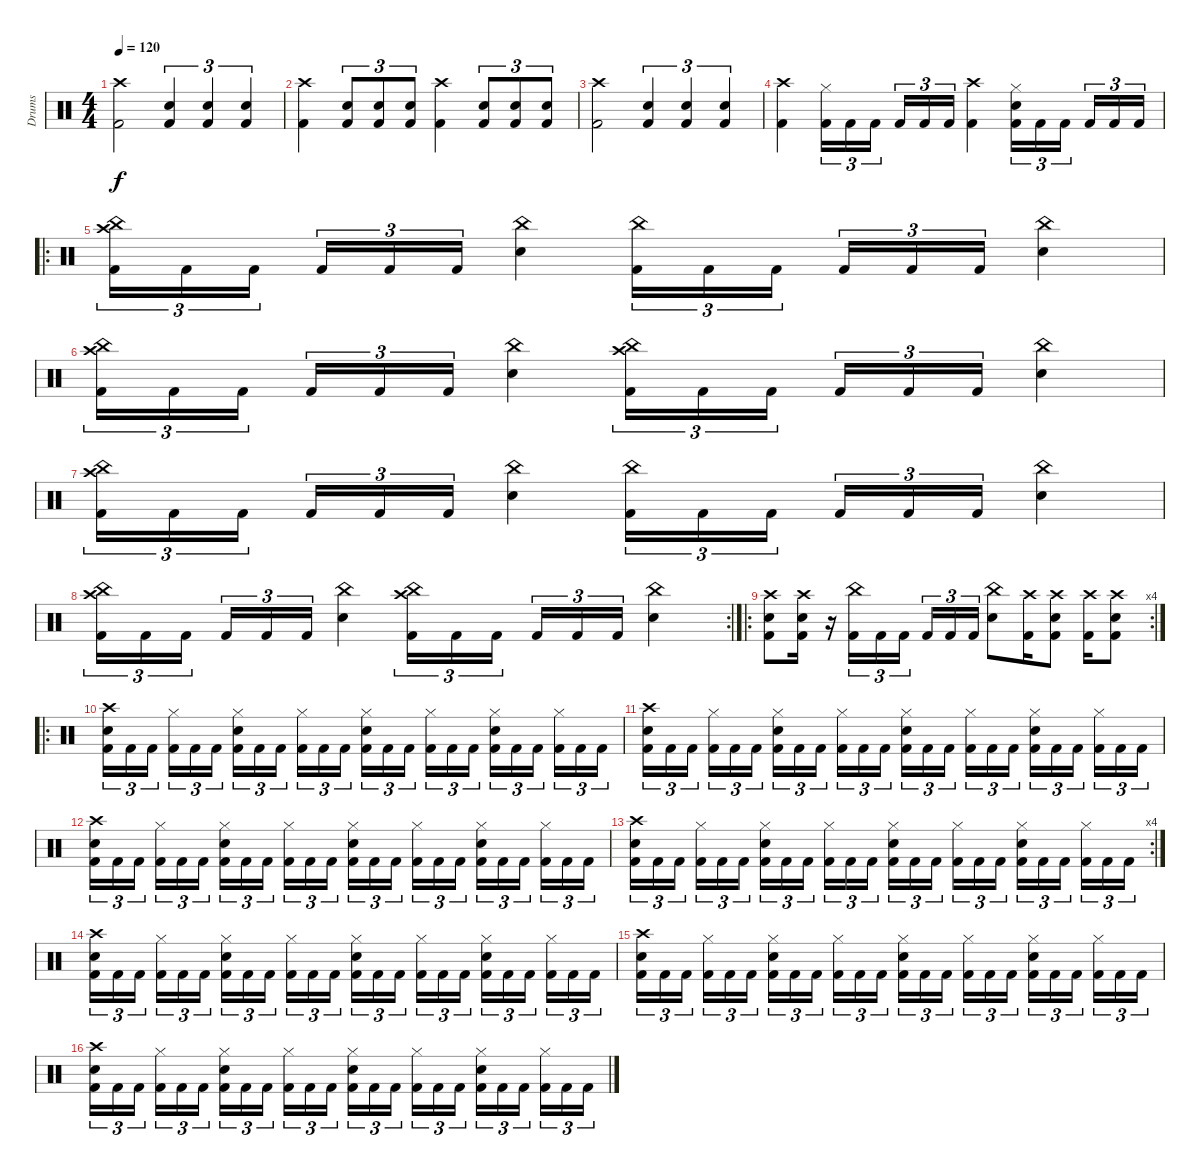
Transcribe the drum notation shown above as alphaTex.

\track ("Drums" "Drums") {instrument percussion}
\staff {score}
\articulation defaults
\ts (4 4)
\tempo 120
\clef neutral
\ks c
("Crash high (hit)" "Kick (hit) 2").2{dy f} ("Snare (hit) 2" "Kick (hit) 2").4{tu (3 2)} ("Snare (hit) 2" "Kick (hit) 2").4{tu (3 2)} ("Snare (hit) 2" "Kick (hit) 2").4{tu (3 2)} |
("Crash high (hit)" "Kick (hit) 2").4 ("Snare (hit) 2" "Kick (hit) 2").8{tu (3 2)} ("Snare (hit) 2" "Kick (hit) 2").8{tu (3 2)} ("Snare (hit) 2" "Kick (hit) 2").8{tu (3 2)} ("Crash high (hit)" "Kick (hit) 2").4 ("Snare (hit) 2" "Kick (hit) 2").8{tu (3 2)} ("Snare (hit) 2" "Kick (hit) 2").8{tu (3 2)} ("Snare (hit) 2" "Kick (hit) 2").8{tu (3 2)} |
("Crash high (hit)" "Kick (hit) 2").2 ("Snare (hit) 2" "Kick (hit) 2").4{tu (3 2)} ("Snare (hit) 2" "Kick (hit) 2").4{tu (3 2)} ("Snare (hit) 2" "Kick (hit) 2").4{tu (3 2)} |
("Crash high (hit)" "Kick (hit) 2").4 ("Hi-Hat (closed)" "Kick (hit) 2").16{tu (3 2)} "Kick (hit) 2".16{tu (3 2)} "Kick (hit) 2".16{tu (3 2)} "Kick (hit) 2".16{tu (3 2)} "Kick (hit) 2".16{tu (3 2)} "Kick (hit) 2".16{tu (3 2)} ("Crash high (hit)" "Kick (hit) 2").4 ("Hi-Hat (closed)" "Snare (hit) 2" "Kick (hit) 2").16{tu (3 2)} "Kick (hit) 2".16{tu (3 2)} "Kick (hit) 2".16{tu (3 2)} "Kick (hit) 2".16{tu (3 2)} "Kick (hit) 2".16{tu (3 2)} "Kick (hit) 2".16{tu (3 2)} |
\ro
("Crash high (hit)" "China (hit)" "Kick (hit) 2").16{tu (3 2)} "Kick (hit) 2".16{tu (3 2)} "Kick (hit) 2".16{tu (3 2)} "Kick (hit) 2".16{tu (3 2)} "Kick (hit) 2".16{tu (3 2)} "Kick (hit) 2".16{tu (3 2)} ("China (hit)" "Snare (hit) 2").4 ("China (hit)" "Kick (hit) 2").16{tu (3 2)} "Kick (hit) 2".16{tu (3 2)} "Kick (hit) 2".16{tu (3 2)} "Kick (hit) 2".16{tu (3 2)} "Kick (hit) 2".16{tu (3 2)} "Kick (hit) 2".16{tu (3 2)} ("China (hit)" "Snare (hit) 2").4 |
("Crash high (hit)" "China (hit)" "Kick (hit) 2").16{tu (3 2)} "Kick (hit) 2".16{tu (3 2)} "Kick (hit) 2".16{tu (3 2)} "Kick (hit) 2".16{tu (3 2)} "Kick (hit) 2".16{tu (3 2)} "Kick (hit) 2".16{tu (3 2)} ("China (hit)" "Snare (hit) 2").4 ("Crash high (hit)" "China (hit)" "Kick (hit) 2").16{tu (3 2)} "Kick (hit) 2".16{tu (3 2)} "Kick (hit) 2".16{tu (3 2)} "Kick (hit) 2".16{tu (3 2)} "Kick (hit) 2".16{tu (3 2)} "Kick (hit) 2".16{tu (3 2)} ("China (hit)" "Snare (hit) 2").4 |
("Crash high (hit)" "China (hit)" "Kick (hit) 2").16{tu (3 2)} "Kick (hit) 2".16{tu (3 2)} "Kick (hit) 2".16{tu (3 2)} "Kick (hit) 2".16{tu (3 2)} "Kick (hit) 2".16{tu (3 2)} "Kick (hit) 2".16{tu (3 2)} ("China (hit)" "Snare (hit) 2").4 ("China (hit)" "Kick (hit) 2").16{tu (3 2)} "Kick (hit) 2".16{tu (3 2)} "Kick (hit) 2".16{tu (3 2)} "Kick (hit) 2".16{tu (3 2)} "Kick (hit) 2".16{tu (3 2)} "Kick (hit) 2".16{tu (3 2)} ("China (hit)" "Snare (hit) 2").4 |
\rc 2
("Crash high (hit)" "China (hit)" "Kick (hit) 2").16{tu (3 2)} "Kick (hit) 2".16{tu (3 2)} "Kick (hit) 2".16{tu (3 2)} "Kick (hit) 2".16{tu (3 2)} "Kick (hit) 2".16{tu (3 2)} "Kick (hit) 2".16{tu (3 2)} ("China (hit)" "Snare (hit) 2").4 ("Crash high (hit)" "China (hit)" "Kick (hit) 2").16{tu (3 2)} "Kick (hit) 2".16{tu (3 2)} "Kick (hit) 2".16{tu (3 2)} "Kick (hit) 2".16{tu (3 2)} "Kick (hit) 2".16{tu (3 2)} "Kick (hit) 2".16{tu (3 2)} ("China (hit)" "Snare (hit) 2").4 |
\ro
\rc 4
("Crash high (hit)" "Snare (hit) 2" "Kick (hit) 2").8 ("Crash high (hit)" "Snare (hit) 2" "Kick (hit) 2").16 r.16 ("China (hit)" "Kick (hit) 2").16{tu (3 2)} "Kick (hit) 2".16{tu (3 2)} "Kick (hit) 2".16{tu (3 2)} "Kick (hit) 2".16{tu (3 2)} "Kick (hit) 2".16{tu (3 2)} "Kick (hit) 2".16{tu (3 2)} ("China (hit)" "Snare (hit) 2").8 ("Crash high (hit)" "Kick (hit) 2").16 ("Crash high (hit)" "Snare (hit) 2" "Kick (hit) 2").8 ("Crash high (hit)" "Kick (hit) 2").16 ("Crash high (hit)" "Snare (hit) 2" "Kick (hit) 2").8 |
\ro
("Crash high (hit)" "Snare (hit) 2" "Kick (hit) 2").16{tu (3 2)} "Kick (hit) 2".16{tu (3 2)} "Kick (hit) 2".16{tu (3 2)} ("Hi-Hat (closed)" "Kick (hit) 2").16{tu (3 2)} "Kick (hit) 2".16{tu (3 2)} "Kick (hit) 2".16{tu (3 2)} ("Hi-Hat (closed)" "Snare (hit) 2" "Kick (hit) 2").16{tu (3 2)} "Kick (hit) 2".16{tu (3 2)} "Kick (hit) 2".16{tu (3 2)} ("Hi-Hat (closed)" "Kick (hit) 2").16{tu (3 2)} "Kick (hit) 2".16{tu (3 2)} "Kick (hit) 2".16{tu (3 2)} ("Hi-Hat (closed)" "Snare (hit) 2" "Kick (hit) 2").16{tu (3 2)} "Kick (hit) 2".16{tu (3 2)} "Kick (hit) 2".16{tu (3 2)} ("Hi-Hat (closed)" "Kick (hit) 2").16{tu (3 2)} "Kick (hit) 2".16{tu (3 2)} "Kick (hit) 2".16{tu (3 2)} ("Hi-Hat (closed)" "Snare (hit) 2" "Kick (hit) 2").16{tu (3 2)} "Kick (hit) 2".16{tu (3 2)} "Kick (hit) 2".16{tu (3 2)} ("Hi-Hat (closed)" "Kick (hit) 2").16{tu (3 2)} "Kick (hit) 2".16{tu (3 2)} "Kick (hit) 2".16{tu (3 2)} |
("Crash high (hit)" "Snare (hit) 2" "Kick (hit) 2").16{tu (3 2)} "Kick (hit) 2".16{tu (3 2)} "Kick (hit) 2".16{tu (3 2)} ("Hi-Hat (closed)" "Kick (hit) 2").16{tu (3 2)} "Kick (hit) 2".16{tu (3 2)} "Kick (hit) 2".16{tu (3 2)} ("Hi-Hat (closed)" "Snare (hit) 2" "Kick (hit) 2").16{tu (3 2)} "Kick (hit) 2".16{tu (3 2)} "Kick (hit) 2".16{tu (3 2)} ("Hi-Hat (closed)" "Kick (hit) 2").16{tu (3 2)} "Kick (hit) 2".16{tu (3 2)} "Kick (hit) 2".16{tu (3 2)} ("Hi-Hat (closed)" "Snare (hit) 2" "Kick (hit) 2").16{tu (3 2)} "Kick (hit) 2".16{tu (3 2)} "Kick (hit) 2".16{tu (3 2)} ("Hi-Hat (closed)" "Kick (hit) 2").16{tu (3 2)} "Kick (hit) 2".16{tu (3 2)} "Kick (hit) 2".16{tu (3 2)} ("Hi-Hat (closed)" "Snare (hit) 2" "Kick (hit) 2").16{tu (3 2)} "Kick (hit) 2".16{tu (3 2)} "Kick (hit) 2".16{tu (3 2)} ("Hi-Hat (closed)" "Kick (hit) 2").16{tu (3 2)} "Kick (hit) 2".16{tu (3 2)} "Kick (hit) 2".16{tu (3 2)} |
("Crash high (hit)" "Snare (hit) 2" "Kick (hit) 2").16{tu (3 2)} "Kick (hit) 2".16{tu (3 2)} "Kick (hit) 2".16{tu (3 2)} ("Hi-Hat (closed)" "Kick (hit) 2").16{tu (3 2)} "Kick (hit) 2".16{tu (3 2)} "Kick (hit) 2".16{tu (3 2)} ("Hi-Hat (closed)" "Snare (hit) 2" "Kick (hit) 2").16{tu (3 2)} "Kick (hit) 2".16{tu (3 2)} "Kick (hit) 2".16{tu (3 2)} ("Hi-Hat (closed)" "Kick (hit) 2").16{tu (3 2)} "Kick (hit) 2".16{tu (3 2)} "Kick (hit) 2".16{tu (3 2)} ("Hi-Hat (closed)" "Snare (hit) 2" "Kick (hit) 2").16{tu (3 2)} "Kick (hit) 2".16{tu (3 2)} "Kick (hit) 2".16{tu (3 2)} ("Hi-Hat (closed)" "Kick (hit) 2").16{tu (3 2)} "Kick (hit) 2".16{tu (3 2)} "Kick (hit) 2".16{tu (3 2)} ("Hi-Hat (closed)" "Snare (hit) 2" "Kick (hit) 2").16{tu (3 2)} "Kick (hit) 2".16{tu (3 2)} "Kick (hit) 2".16{tu (3 2)} ("Hi-Hat (closed)" "Kick (hit) 2").16{tu (3 2)} "Kick (hit) 2".16{tu (3 2)} "Kick (hit) 2".16{tu (3 2)} |
\rc 4
("Crash high (hit)" "Snare (hit) 2" "Kick (hit) 2").16{tu (3 2)} "Kick (hit) 2".16{tu (3 2)} "Kick (hit) 2".16{tu (3 2)} ("Hi-Hat (closed)" "Kick (hit) 2").16{tu (3 2)} "Kick (hit) 2".16{tu (3 2)} "Kick (hit) 2".16{tu (3 2)} ("Hi-Hat (closed)" "Snare (hit) 2" "Kick (hit) 2").16{tu (3 2)} "Kick (hit) 2".16{tu (3 2)} "Kick (hit) 2".16{tu (3 2)} ("Hi-Hat (closed)" "Kick (hit) 2").16{tu (3 2)} "Kick (hit) 2".16{tu (3 2)} "Kick (hit) 2".16{tu (3 2)} ("Hi-Hat (closed)" "Snare (hit) 2" "Kick (hit) 2").16{tu (3 2)} "Kick (hit) 2".16{tu (3 2)} "Kick (hit) 2".16{tu (3 2)} ("Hi-Hat (closed)" "Kick (hit) 2").16{tu (3 2)} "Kick (hit) 2".16{tu (3 2)} "Kick (hit) 2".16{tu (3 2)} ("Hi-Hat (closed)" "Snare (hit) 2" "Kick (hit) 2").16{tu (3 2)} "Kick (hit) 2".16{tu (3 2)} "Kick (hit) 2".16{tu (3 2)} ("Hi-Hat (closed)" "Kick (hit) 2").16{tu (3 2)} "Kick (hit) 2".16{tu (3 2)} "Kick (hit) 2".16{tu (3 2)} |
("Crash high (hit)" "Snare (hit) 2" "Kick (hit) 2").16{tu (3 2)} "Kick (hit) 2".16{tu (3 2)} "Kick (hit) 2".16{tu (3 2)} ("Hi-Hat (closed)" "Kick (hit) 2").16{tu (3 2)} "Kick (hit) 2".16{tu (3 2)} "Kick (hit) 2".16{tu (3 2)} ("Hi-Hat (closed)" "Snare (hit) 2" "Kick (hit) 2").16{tu (3 2)} "Kick (hit) 2".16{tu (3 2)} "Kick (hit) 2".16{tu (3 2)} ("Hi-Hat (closed)" "Kick (hit) 2").16{tu (3 2)} "Kick (hit) 2".16{tu (3 2)} "Kick (hit) 2".16{tu (3 2)} ("Hi-Hat (closed)" "Snare (hit) 2" "Kick (hit) 2").16{tu (3 2)} "Kick (hit) 2".16{tu (3 2)} "Kick (hit) 2".16{tu (3 2)} ("Hi-Hat (closed)" "Kick (hit) 2").16{tu (3 2)} "Kick (hit) 2".16{tu (3 2)} "Kick (hit) 2".16{tu (3 2)} ("Hi-Hat (closed)" "Snare (hit) 2" "Kick (hit) 2").16{tu (3 2)} "Kick (hit) 2".16{tu (3 2)} "Kick (hit) 2".16{tu (3 2)} ("Hi-Hat (closed)" "Kick (hit) 2").16{tu (3 2)} "Kick (hit) 2".16{tu (3 2)} "Kick (hit) 2".16{tu (3 2)} |
("Crash high (hit)" "Snare (hit) 2" "Kick (hit) 2").16{tu (3 2)} "Kick (hit) 2".16{tu (3 2)} "Kick (hit) 2".16{tu (3 2)} ("Hi-Hat (closed)" "Kick (hit) 2").16{tu (3 2)} "Kick (hit) 2".16{tu (3 2)} "Kick (hit) 2".16{tu (3 2)} ("Hi-Hat (closed)" "Snare (hit) 2" "Kick (hit) 2").16{tu (3 2)} "Kick (hit) 2".16{tu (3 2)} "Kick (hit) 2".16{tu (3 2)} ("Hi-Hat (closed)" "Kick (hit) 2").16{tu (3 2)} "Kick (hit) 2".16{tu (3 2)} "Kick (hit) 2".16{tu (3 2)} ("Hi-Hat (closed)" "Snare (hit) 2" "Kick (hit) 2").16{tu (3 2)} "Kick (hit) 2".16{tu (3 2)} "Kick (hit) 2".16{tu (3 2)} ("Hi-Hat (closed)" "Kick (hit) 2").16{tu (3 2)} "Kick (hit) 2".16{tu (3 2)} "Kick (hit) 2".16{tu (3 2)} ("Hi-Hat (closed)" "Snare (hit) 2" "Kick (hit) 2").16{tu (3 2)} "Kick (hit) 2".16{tu (3 2)} "Kick (hit) 2".16{tu (3 2)} ("Hi-Hat (closed)" "Kick (hit) 2").16{tu (3 2)} "Kick (hit) 2".16{tu (3 2)} "Kick (hit) 2".16{tu (3 2)} |
("Crash high (hit)" "Snare (hit) 2" "Kick (hit) 2").16{tu (3 2)} "Kick (hit) 2".16{tu (3 2)} "Kick (hit) 2".16{tu (3 2)} ("Hi-Hat (closed)" "Kick (hit) 2").16{tu (3 2)} "Kick (hit) 2".16{tu (3 2)} "Kick (hit) 2".16{tu (3 2)} ("Hi-Hat (closed)" "Snare (hit) 2" "Kick (hit) 2").16{tu (3 2)} "Kick (hit) 2".16{tu (3 2)} "Kick (hit) 2".16{tu (3 2)} ("Hi-Hat (closed)" "Kick (hit) 2").16{tu (3 2)} "Kick (hit) 2".16{tu (3 2)} "Kick (hit) 2".16{tu (3 2)} ("Hi-Hat (closed)" "Snare (hit) 2" "Kick (hit) 2").16{tu (3 2)} "Kick (hit) 2".16{tu (3 2)} "Kick (hit) 2".16{tu (3 2)} ("Hi-Hat (closed)" "Kick (hit) 2").16{tu (3 2)} "Kick (hit) 2".16{tu (3 2)} "Kick (hit) 2".16{tu (3 2)} ("Hi-Hat (closed)" "Snare (hit) 2" "Kick (hit) 2").16{tu (3 2)} "Kick (hit) 2".16{tu (3 2)} "Kick (hit) 2".16{tu (3 2)} ("Hi-Hat (closed)" "Kick (hit) 2").16{tu (3 2)} "Kick (hit) 2".16{tu (3 2)} "Kick (hit) 2".16{tu (3 2)}
